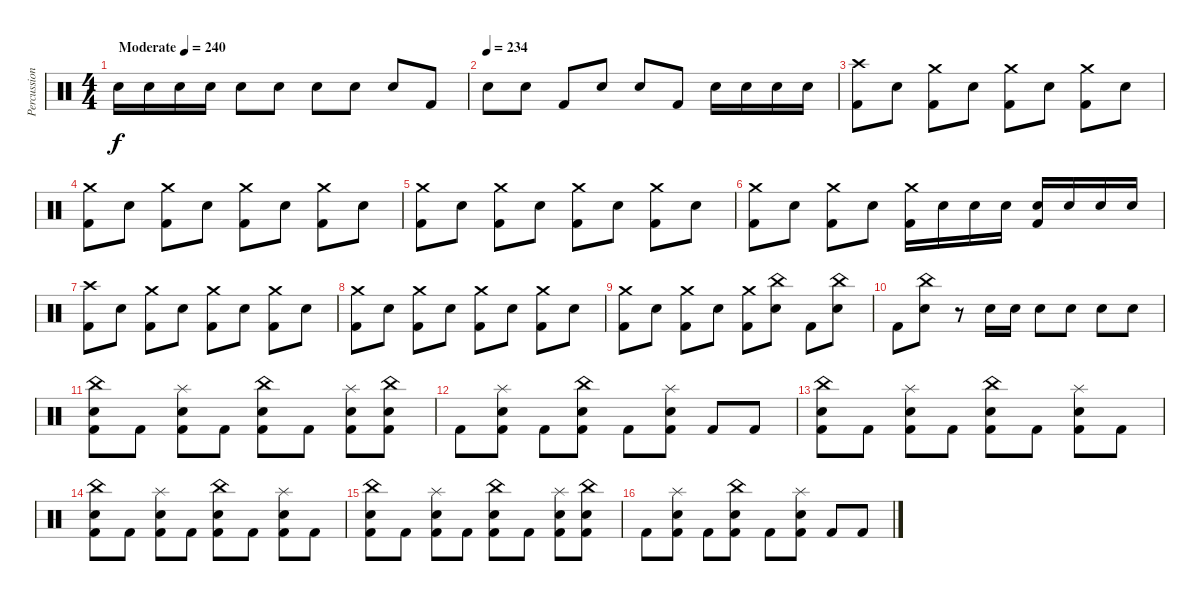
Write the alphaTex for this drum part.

\track ("Percussion" "Percussion") {instrument percussion}
\staff {score}
\articulation defaults
\ts (4 4)
\tempo (240 "Moderate")
\clef neutral
\ks c "Snare (hit) 2".16{dy f} "Snare (hit) 2".16 "Snare (hit) 2".16 "Snare (hit) 2".16 "Snare (hit) 2".8 "Snare (hit) 2".8 "Snare (hit) 2".8 "Snare (hit) 2".8 "Snare (hit) 2".8 "Kick (hit) 2".8
|
\tempo (234)
"Snare (hit) 2".8 "Snare (hit) 2".8 "Kick (hit) 2".8 "Snare (hit) 2".8 "Snare (hit) 2".8 "Kick (hit) 2".8 "Snare (hit) 2".16 "Snare (hit) 2".16 "Snare (hit) 2".16 "Snare (hit) 2".16 |
("Crash high (hit)" "Kick (hit) 2").8 "Snare (hit) 2".8 ("Crash medium (hit)" "Kick (hit) 2").8 "Snare (hit) 2".8 ("Crash medium (hit)" "Kick (hit) 2").8 "Snare (hit) 2".8 ("Crash medium (hit)" "Kick (hit) 2").8 "Snare (hit) 2".8 |
("Crash medium (hit)" "Kick (hit) 2").8 "Snare (hit) 2".8 ("Crash medium (hit)" "Kick (hit) 2").8 "Snare (hit) 2".8 ("Crash medium (hit)" "Kick (hit) 2").8 "Snare (hit) 2".8 ("Crash medium (hit)" "Kick (hit) 2").8 "Snare (hit) 2".8 |
("Crash medium (hit)" "Kick (hit) 2").8 "Snare (hit) 2".8 ("Crash medium (hit)" "Kick (hit) 2").8 "Snare (hit) 2".8 ("Crash medium (hit)" "Kick (hit) 2").8 "Snare (hit) 2".8 ("Crash medium (hit)" "Kick (hit) 2").8 "Snare (hit) 2".8 |
("Crash medium (hit)" "Kick (hit) 2").8 "Snare (hit) 2".8 ("Crash medium (hit)" "Kick (hit) 2").8 "Snare (hit) 2".8 ("Crash medium (hit)" "Kick (hit) 2").16 "Snare (hit) 2".16 "Snare (hit) 2".16 "Snare (hit) 2".16 ("Snare (hit) 2" "Kick (hit) 2").16 "Snare (hit) 2".16 "Snare (hit) 2".16 "Snare (hit) 2".16 |
("Crash high (hit)" "Kick (hit) 2").8 "Snare (hit) 2".8 ("Crash medium (hit)" "Kick (hit) 2").8 "Snare (hit) 2".8 ("Crash medium (hit)" "Kick (hit) 2").8 "Snare (hit) 2".8 ("Crash medium (hit)" "Kick (hit) 2").8 "Snare (hit) 2".8 |
("Crash medium (hit)" "Kick (hit) 2").8 "Snare (hit) 2".8 ("Crash medium (hit)" "Kick (hit) 2").8 "Snare (hit) 2".8 ("Crash medium (hit)" "Kick (hit) 2").8 "Snare (hit) 2".8 ("Crash medium (hit)" "Kick (hit) 2").8 "Snare (hit) 2".8 |
("Crash medium (hit)" "Kick (hit) 2").8 "Snare (hit) 2".8 ("Crash medium (hit)" "Kick (hit) 2").8 "Snare (hit) 2".8 ("Crash medium (hit)" "Kick (hit) 2").8 ("China (hit)" "Snare (hit) 2").8 "Kick (hit) 2".8 ("China (hit)" "Snare (hit) 2").8 |
"Kick (hit) 2".8 ("China (hit)" "Snare (hit) 2").8 r.8 "Snare (hit) 2".16 "Snare (hit) 2".16 "Snare (hit) 2".8 "Snare (hit) 2".8 "Snare (hit) 2".8 "Snare (hit) 2".8 |
("China (hit)" "Snare (hit) 2" "Kick (hit) 2").8 "Kick (hit) 2".8 ("Splash (hit)" "Snare (hit) 2" "Kick (hit) 2").8 "Kick (hit) 2".8 ("China (hit)" "Snare (hit) 2" "Kick (hit) 2").8 "Kick (hit) 2".8 ("Splash (hit)" "Snare (hit) 2" "Kick (hit) 2").8 ("China (hit)" "Snare (hit) 2" "Kick (hit) 2").8 |
"Kick (hit) 2".8 ("Splash (hit)" "Snare (hit) 2" "Kick (hit) 2").8 "Kick (hit) 2".8 ("China (hit)" "Snare (hit) 2" "Kick (hit) 2").8 "Kick (hit) 2".8 ("Splash (hit)" "Snare (hit) 2" "Kick (hit) 2").8 "Kick (hit) 2".8 "Kick (hit) 2".8 |
("China (hit)" "Snare (hit) 2" "Kick (hit) 2").8 "Kick (hit) 2".8 ("Splash (hit)" "Snare (hit) 2" "Kick (hit) 2").8 "Kick (hit) 2".8 ("China (hit)" "Snare (hit) 2" "Kick (hit) 2").8 "Kick (hit) 2".8 ("Splash (hit)" "Snare (hit) 2" "Kick (hit) 2").8 "Kick (hit) 2".8 |
("China (hit)" "Snare (hit) 2" "Kick (hit) 2").8 "Kick (hit) 2".8 ("Splash (hit)" "Snare (hit) 2" "Kick (hit) 2").8 "Kick (hit) 2".8 ("China (hit)" "Snare (hit) 2" "Kick (hit) 2").8 "Kick (hit) 2".8 ("Splash (hit)" "Snare (hit) 2" "Kick (hit) 2").8 "Kick (hit) 2".8 |
("China (hit)" "Snare (hit) 2" "Kick (hit) 2").8 "Kick (hit) 2".8 ("Splash (hit)" "Snare (hit) 2" "Kick (hit) 2").8 "Kick (hit) 2".8 ("China (hit)" "Snare (hit) 2" "Kick (hit) 2").8 "Kick (hit) 2".8 ("Splash (hit)" "Snare (hit) 2" "Kick (hit) 2").8 ("China (hit)" "Snare (hit) 2" "Kick (hit) 2").8 |
"Kick (hit) 2".8 ("Splash (hit)" "Snare (hit) 2" "Kick (hit) 2").8 "Kick (hit) 2".8 ("China (hit)" "Snare (hit) 2" "Kick (hit) 2").8 "Kick (hit) 2".8 ("Splash (hit)" "Snare (hit) 2" "Kick (hit) 2").8 "Kick (hit) 2".8 "Kick (hit) 2".8
